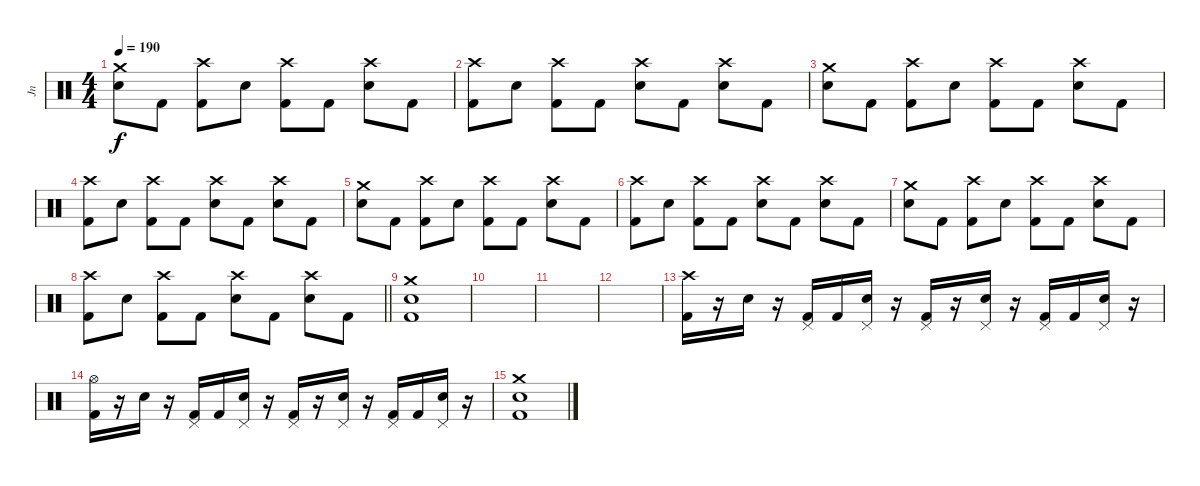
\track ("Jn" "Jn") {instrument percussion}
\staff {score}
\articulation defaults
\ts (4 4)
\tempo 190
\clef neutral
\ks c
("Crash medium (hit)" "Electric Snare (hit)").8{dy f} "Kick (hit) 2".8 ("Crash high (hit)" "Kick (hit) 2").8 "Electric Snare (hit)".8 ("Crash high (hit)" "Kick (hit) 2").8 "Kick (hit) 2".8 ("Crash high (hit)" "Electric Snare (hit)").8 "Kick (hit) 2".8 |
("Crash high (hit)" "Kick (hit) 2").8 "Electric Snare (hit)".8 ("Crash high (hit)" "Kick (hit) 2").8 "Kick (hit) 2".8 ("Crash high (hit)" "Electric Snare (hit)").8 "Kick (hit) 2".8 ("Crash high (hit)" "Electric Snare (hit)").8 "Kick (hit) 2".8 |
("Crash medium (hit)" "Electric Snare (hit)").8 "Kick (hit) 2".8 ("Crash high (hit)" "Kick (hit) 2").8 "Electric Snare (hit)".8 ("Crash high (hit)" "Kick (hit) 2").8 "Kick (hit) 2".8 ("Crash high (hit)" "Electric Snare (hit)").8 "Kick (hit) 2".8 |
("Crash high (hit)" "Kick (hit) 2").8 "Electric Snare (hit)".8 ("Crash high (hit)" "Kick (hit) 2").8 "Kick (hit) 2".8 ("Crash high (hit)" "Electric Snare (hit)").8 "Kick (hit) 2".8 ("Crash high (hit)" "Electric Snare (hit)").8 "Kick (hit) 2".8 |
("Crash medium (hit)" "Electric Snare (hit)").8 "Kick (hit) 2".8 ("Crash high (hit)" "Kick (hit) 2").8 "Electric Snare (hit)".8 ("Crash high (hit)" "Kick (hit) 2").8 "Kick (hit) 2".8 ("Crash high (hit)" "Electric Snare (hit)").8 "Kick (hit) 2".8 |
("Crash high (hit)" "Kick (hit) 2").8 "Electric Snare (hit)".8 ("Crash high (hit)" "Kick (hit) 2").8 "Kick (hit) 2".8 ("Crash high (hit)" "Electric Snare (hit)").8 "Kick (hit) 2".8 ("Crash high (hit)" "Electric Snare (hit)").8 "Kick (hit) 2".8 |
("Crash medium (hit)" "Electric Snare (hit)").8 "Kick (hit) 2".8 ("Crash high (hit)" "Kick (hit) 2").8 "Electric Snare (hit)".8 ("Crash high (hit)" "Kick (hit) 2").8 "Kick (hit) 2".8 ("Crash high (hit)" "Electric Snare (hit)").8 "Kick (hit) 2".8 |
\barLineRight lightlight
("Crash high (hit)" "Kick (hit) 2").8 "Electric Snare (hit)".8 ("Crash high (hit)" "Kick (hit) 2").8 "Kick (hit) 2".8 ("Crash high (hit)" "Electric Snare (hit)").8 "Kick (hit) 2".8 ("Crash high (hit)" "Electric Snare (hit)").8 "Kick (hit) 2".8 |
("Crash medium (hit)" "Electric Snare (hit)" "Kick (hit) 2").1 |
|
|
|
("Crash high (hit)" "Kick (hit) 2").16 r.16 "Electric Snare (hit)".16 r.16 ("Pedal Hi-Hat (hit)" "Kick (hit) 2").16 "Kick (hit) 2".16 ("Pedal Hi-Hat (hit)" "Electric Snare (hit)").16 r.16 ("Pedal Hi-Hat (hit)" "Kick (hit) 2").16 r.16 ("Pedal Hi-Hat (hit)" "Electric Snare (hit)").16 r.16 ("Pedal Hi-Hat (hit)" "Kick (hit) 2").16 "Kick (hit) 2".16 ("Pedal Hi-Hat (hit)" "Electric Snare (hit)").16 r.16 |
("Hi-Hat (open)" "Kick (hit) 2").16 r.16 "Electric Snare (hit)".16 r.16 ("Pedal Hi-Hat (hit)" "Kick (hit) 2").16 "Kick (hit) 2".16 ("Pedal Hi-Hat (hit)" "Electric Snare (hit)").16 r.16 ("Pedal Hi-Hat (hit)" "Kick (hit) 2").16 r.16 ("Pedal Hi-Hat (hit)" "Electric Snare (hit)").16 r.16 ("Pedal Hi-Hat (hit)" "Kick (hit) 2").16 "Kick (hit) 2".16 ("Pedal Hi-Hat (hit)" "Electric Snare (hit)").16 r.16 |
("Crash medium (hit)" "Electric Snare (hit)" "Kick (hit) 2").1
